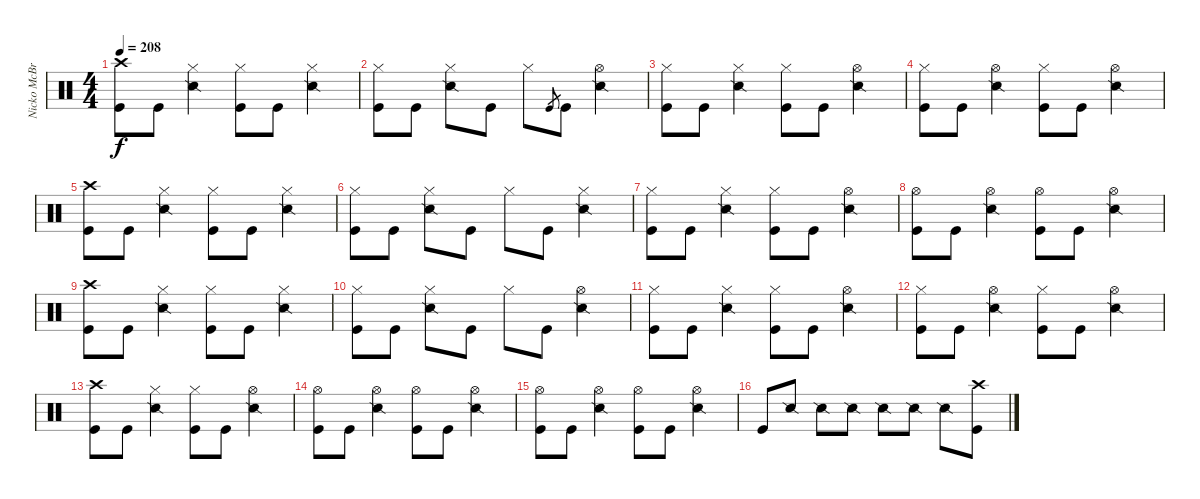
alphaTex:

\track ("Nicko McBrain" "Nicko McBr") {instrument percussion}
\staff {score}
\articulation defaults
\ts (4 4)
\tempo 208
\clef neutral
\ks c
("Crash high (hit)" "Kick (hit)").8{dy f} "Kick (hit)".8 ("Hi-Hat (closed)" "Snare (side stick) 2").4 ("Hi-Hat (closed)" "Kick (hit)").8 "Kick (hit)".8 ("Hi-Hat (closed)" "Snare (side stick) 2").4 |
("Hi-Hat (closed)" "Kick (hit)").8 "Kick (hit)".8 ("Hi-Hat (closed)" "Snare (side stick) 2").8 "Kick (hit)".8 "Hi-Hat (closed)".8 "Kick (hit)".8{gr} "Kick (hit)".8 ("Hi-Hat (open)" "Snare (side stick) 2").4 |
("Hi-Hat (closed)" "Kick (hit)").8 "Kick (hit)".8 ("Hi-Hat (closed)" "Snare (side stick) 2").4 ("Hi-Hat (closed)" "Kick (hit)").8 "Kick (hit)".8 ("Hi-Hat (open)" "Snare (side stick) 2").4 |
("Hi-Hat (closed)" "Kick (hit)").8 "Kick (hit)".8 ("Hi-Hat (open)" "Snare (side stick) 2").4 ("Hi-Hat (closed)" "Kick (hit)").8 "Kick (hit)".8 ("Hi-Hat (open)" "Snare (side stick) 2").4 |
("Crash high (hit)" "Kick (hit)").8 "Kick (hit)".8 ("Hi-Hat (closed)" "Snare (side stick) 2").4 ("Hi-Hat (closed)" "Kick (hit)").8 "Kick (hit)".8 ("Hi-Hat (closed)" "Snare (side stick) 2").4 |
("Hi-Hat (closed)" "Kick (hit)").8 "Kick (hit)".8 ("Hi-Hat (closed)" "Snare (side stick) 2").8 "Kick (hit)".8 "Hi-Hat (closed)".8 "Kick (hit)".8 ("Hi-Hat (closed)" "Snare (side stick) 2").4 |
("Hi-Hat (closed)" "Kick (hit)").8 "Kick (hit)".8 ("Hi-Hat (closed)" "Snare (side stick) 2").4 ("Hi-Hat (closed)" "Kick (hit)").8 "Kick (hit)".8 ("Hi-Hat (open)" "Snare (side stick) 2").4 |
("Hi-Hat (open)" "Kick (hit)").8 "Kick (hit)".8 ("Hi-Hat (open)" "Snare (side stick) 2").4 ("Hi-Hat (open)" "Kick (hit)").8 "Kick (hit)".8 ("Hi-Hat (open)" "Snare (side stick) 2").4 |
("Crash high (hit)" "Kick (hit)").8 "Kick (hit)".8 ("Hi-Hat (closed)" "Snare (side stick) 2").4 ("Hi-Hat (closed)" "Kick (hit)").8 "Kick (hit)".8 ("Hi-Hat (closed)" "Snare (side stick) 2").4 |
("Hi-Hat (closed)" "Kick (hit)").8 "Kick (hit)".8 ("Hi-Hat (closed)" "Snare (side stick) 2").8 "Kick (hit)".8 "Hi-Hat (closed)".8 "Kick (hit)".8 ("Hi-Hat (open)" "Snare (side stick) 2").4 |
("Hi-Hat (closed)" "Kick (hit)").8 "Kick (hit)".8 ("Hi-Hat (closed)" "Snare (side stick) 2").4 ("Hi-Hat (closed)" "Kick (hit)").8 "Kick (hit)".8 ("Hi-Hat (open)" "Snare (side stick) 2").4 |
("Hi-Hat (closed)" "Kick (hit)").8 "Kick (hit)".8 ("Hi-Hat (open)" "Snare (side stick) 2").4 ("Hi-Hat (closed)" "Kick (hit)").8 "Kick (hit)".8 ("Hi-Hat (open)" "Snare (side stick) 2").4 |
("Crash high (hit)" "Kick (hit)").8 "Kick (hit)".8 ("Hi-Hat (closed)" "Snare (side stick) 2").4 ("Hi-Hat (closed)" "Kick (hit)").8 "Kick (hit)".8 ("Hi-Hat (open)" "Snare (side stick) 2").4 |
("Hi-Hat (open)" "Kick (hit)").8 "Kick (hit)".8 ("Hi-Hat (open)" "Snare (side stick) 2").4 ("Hi-Hat (open)" "Kick (hit)").8 "Kick (hit)".8 ("Hi-Hat (open)" "Snare (side stick) 2").4 |
("Hi-Hat (open)" "Kick (hit)").8 "Kick (hit)".8 ("Hi-Hat (open)" "Snare (side stick) 2").4 ("Hi-Hat (open)" "Kick (hit)").8 "Kick (hit)".8 ("Hi-Hat (open)" "Snare (side stick) 2").4 |
"Kick (hit)".8 "Snare (side stick) 2".8 "Snare (side stick) 2".8 "Snare (side stick) 2".8 "Snare (side stick) 2".8 "Snare (side stick) 2".8 "Snare (side stick) 2".8 ("Crash high (hit)" "Kick (hit)").8
